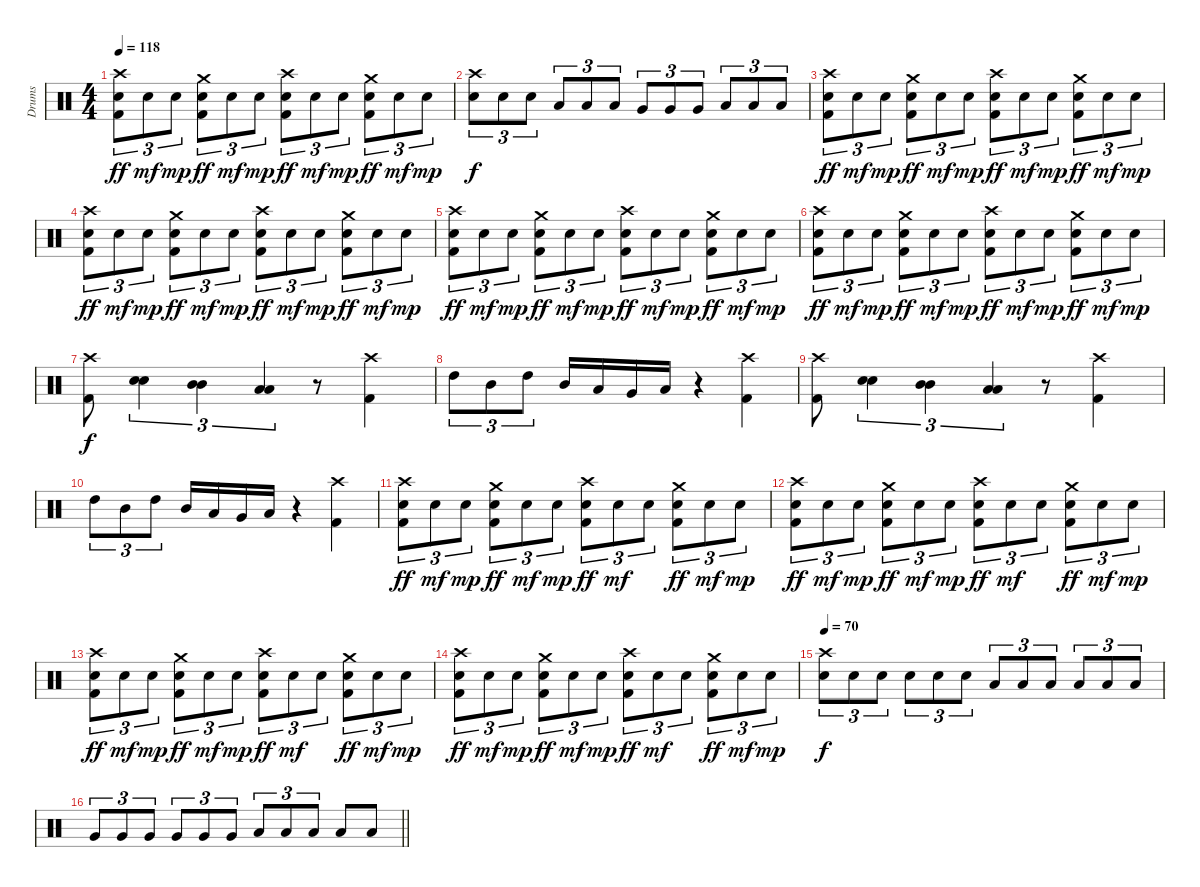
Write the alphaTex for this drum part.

\track ("Drums" "Drums") {instrument percussion}
\staff {score}
\articulation defaults
\ts (4 4)
\tempo 118
\clef neutral
\ks c
("Crash high (hit)" "Snare (hit) 2" "Kick (hit) 2").8{tu (3 2) dy ff} "Snare (hit) 2".8{tu (3 2) dy mf} "Snare (hit) 2".8{tu (3 2) dy mp} ("Crash medium (hit)" "Snare (hit) 2" "Kick (hit) 2").8{tu (3 2) dy ff} "Snare (hit) 2".8{tu (3 2) dy mf} "Snare (hit) 2".8{tu (3 2) dy mp} ("Crash high (hit)" "Snare (hit) 2" "Kick (hit) 2").8{tu (3 2) dy ff} "Snare (hit) 2".8{tu (3 2) dy mf} "Snare (hit) 2".8{tu (3 2) dy mp} ("Crash medium (hit)" "Snare (hit) 2" "Kick (hit) 2").8{tu (3 2) dy ff} "Snare (hit) 2".8{tu (3 2) dy mf} "Snare (hit) 2".8{tu (3 2) dy mp} |
("Crash high (hit)" "Snare (hit) 2").8{tu (3 2) dy f} "Snare (hit) 2".8{tu (3 2)} "Snare (hit) 2".8{tu (3 2)} "Low Tom (hit)".8{tu (3 2)} "Low Tom (hit)".8{tu (3 2)} "Low Tom (hit)".8{tu (3 2)} "Very Low Tom (hit)".8{tu (3 2)} "Very Low Tom (hit)".8{tu (3 2)} "Very Low Tom (hit)".8{tu (3 2)} "Low Floor Tom (hit)".8{tu (3 2)} "Low Floor Tom (hit)".8{tu (3 2)} "Low Floor Tom (hit)".8{tu (3 2)} |
("Crash high (hit)" "Snare (hit) 2" "Kick (hit) 2").8{tu (3 2) dy ff} "Snare (hit) 2".8{tu (3 2) dy mf} "Snare (hit) 2".8{tu (3 2) dy mp} ("Crash medium (hit)" "Snare (hit) 2" "Kick (hit) 2").8{tu (3 2) dy ff} "Snare (hit) 2".8{tu (3 2) dy mf} "Snare (hit) 2".8{tu (3 2) dy mp} ("Crash high (hit)" "Snare (hit) 2" "Kick (hit) 2").8{tu (3 2) dy ff} "Snare (hit) 2".8{tu (3 2) dy mf} "Snare (hit) 2".8{tu (3 2) dy mp} ("Crash medium (hit)" "Snare (hit) 2" "Kick (hit) 2").8{tu (3 2) dy ff} "Snare (hit) 2".8{tu (3 2) dy mf} "Snare (hit) 2".8{tu (3 2) dy mp} |
("Crash high (hit)" "Snare (hit) 2" "Kick (hit) 2").8{tu (3 2) dy ff} "Snare (hit) 2".8{tu (3 2) dy mf} "Snare (hit) 2".8{tu (3 2) dy mp} ("Crash medium (hit)" "Snare (hit) 2" "Kick (hit) 2").8{tu (3 2) dy ff} "Snare (hit) 2".8{tu (3 2) dy mf} "Snare (hit) 2".8{tu (3 2) dy mp} ("Crash high (hit)" "Snare (hit) 2" "Kick (hit) 2").8{tu (3 2) dy ff} "Snare (hit) 2".8{tu (3 2) dy mf} "Snare (hit) 2".8{tu (3 2) dy mp} ("Crash medium (hit)" "Snare (hit) 2" "Kick (hit) 2").8{tu (3 2) dy ff} "Snare (hit) 2".8{tu (3 2) dy mf} "Snare (hit) 2".8{tu (3 2) dy mp} |
("Crash high (hit)" "Snare (hit) 2" "Kick (hit) 2").8{tu (3 2) dy ff} "Snare (hit) 2".8{tu (3 2) dy mf} "Snare (hit) 2".8{tu (3 2) dy mp} ("Crash medium (hit)" "Snare (hit) 2" "Kick (hit) 2").8{tu (3 2) dy ff} "Snare (hit) 2".8{tu (3 2) dy mf} "Snare (hit) 2".8{tu (3 2) dy mp} ("Crash high (hit)" "Snare (hit) 2" "Kick (hit) 2").8{tu (3 2) dy ff} "Snare (hit) 2".8{tu (3 2) dy mf} "Snare (hit) 2".8{tu (3 2) dy mp} ("Crash medium (hit)" "Snare (hit) 2" "Kick (hit) 2").8{tu (3 2) dy ff} "Snare (hit) 2".8{tu (3 2) dy mf} "Snare (hit) 2".8{tu (3 2) dy mp} |
("Crash high (hit)" "Snare (hit) 2" "Kick (hit) 2").8{tu (3 2) dy ff} "Snare (hit) 2".8{tu (3 2) dy mf} "Snare (hit) 2".8{tu (3 2) dy mp} ("Crash medium (hit)" "Snare (hit) 2" "Kick (hit) 2").8{tu (3 2) dy ff} "Snare (hit) 2".8{tu (3 2) dy mf} "Snare (hit) 2".8{tu (3 2) dy mp} ("Crash high (hit)" "Snare (hit) 2" "Kick (hit) 2").8{tu (3 2) dy ff} "Snare (hit) 2".8{tu (3 2) dy mf} "Snare (hit) 2".8{tu (3 2) dy mp} ("Crash medium (hit)" "Snare (hit) 2" "Kick (hit) 2").8{tu (3 2) dy ff} "Snare (hit) 2".8{tu (3 2) dy mf} "Snare (hit) 2".8{tu (3 2) dy mp} |
("Crash high (hit)" "Kick (hit) 2").8{dy f} ("Snare (hit) 2" "Snare (hit) 2").4{tu (3 2)} ("Mid Tom (hit)" "Mid Tom (hit)").4{tu (3 2)} ("Low Tom (hit)" "Low Tom (hit)").4{tu (3 2)} r.8 ("Crash high (hit)" "Kick (hit) 2").4 |
"High Tom (hit)".8{tu (3 2)} "Mid Tom (hit)".8{tu (3 2)} "High Tom (hit)".8{tu (3 2)} "Mid Tom (hit)".16 "Low Tom (hit)".16 "Very Low Tom (hit)".16 "Low Floor Tom (hit)".16 r.4 ("Crash high (hit)" "Kick (hit) 2").4 |
("Crash high (hit)" "Kick (hit) 2").8 ("Snare (hit) 2" "Snare (hit) 2").4{tu (3 2)} ("Mid Tom (hit)" "Mid Tom (hit)").4{tu (3 2)} ("Low Tom (hit)" "Low Tom (hit)").4{tu (3 2)} r.8 ("Crash high (hit)" "Kick (hit) 2").4 |
"High Tom (hit)".8{tu (3 2)} "Mid Tom (hit)".8{tu (3 2)} "High Tom (hit)".8{tu (3 2)} "Mid Tom (hit)".16 "Low Tom (hit)".16 "Very Low Tom (hit)".16 "Low Floor Tom (hit)".16 r.4 ("Crash high (hit)" "Kick (hit) 2").4 |
("Crash high (hit)" "Snare (hit) 2" "Kick (hit) 2").8{tu (3 2) dy ff} "Snare (hit) 2".8{tu (3 2) dy mf} "Snare (hit) 2".8{tu (3 2) dy mp} ("Crash medium (hit)" "Snare (hit) 2" "Kick (hit) 2").8{tu (3 2) dy ff} "Snare (hit) 2".8{tu (3 2) dy mf} "Snare (hit) 2".8{tu (3 2) dy mp} ("Crash high (hit)" "Snare (hit) 2" "Kick (hit) 2").8{tu (3 2) dy ff} "Snare (hit) 2".8{tu (3 2) dy mf} "Snare (hit) 2".8{tu (3 2)} ("Crash medium (hit)" "Snare (hit) 2" "Kick (hit) 2").8{tu (3 2) dy ff} "Snare (hit) 2".8{tu (3 2) dy mf} "Snare (hit) 2".8{tu (3 2) dy mp} |
("Crash high (hit)" "Snare (hit) 2" "Kick (hit) 2").8{tu (3 2) dy ff} "Snare (hit) 2".8{tu (3 2) dy mf} "Snare (hit) 2".8{tu (3 2) dy mp} ("Crash medium (hit)" "Snare (hit) 2" "Kick (hit) 2").8{tu (3 2) dy ff} "Snare (hit) 2".8{tu (3 2) dy mf} "Snare (hit) 2".8{tu (3 2) dy mp} ("Crash high (hit)" "Snare (hit) 2" "Kick (hit) 2").8{tu (3 2) dy ff} "Snare (hit) 2".8{tu (3 2) dy mf} "Snare (hit) 2".8{tu (3 2)} ("Crash medium (hit)" "Snare (hit) 2" "Kick (hit) 2").8{tu (3 2) dy ff} "Snare (hit) 2".8{tu (3 2) dy mf} "Snare (hit) 2".8{tu (3 2) dy mp} |
("Crash high (hit)" "Snare (hit) 2" "Kick (hit) 2").8{tu (3 2) dy ff} "Snare (hit) 2".8{tu (3 2) dy mf} "Snare (hit) 2".8{tu (3 2) dy mp} ("Crash medium (hit)" "Snare (hit) 2" "Kick (hit) 2").8{tu (3 2) dy ff} "Snare (hit) 2".8{tu (3 2) dy mf} "Snare (hit) 2".8{tu (3 2) dy mp} ("Crash high (hit)" "Snare (hit) 2" "Kick (hit) 2").8{tu (3 2) dy ff} "Snare (hit) 2".8{tu (3 2) dy mf} "Snare (hit) 2".8{tu (3 2)} ("Crash medium (hit)" "Snare (hit) 2" "Kick (hit) 2").8{tu (3 2) dy ff} "Snare (hit) 2".8{tu (3 2) dy mf} "Snare (hit) 2".8{tu (3 2) dy mp} |
("Crash high (hit)" "Snare (hit) 2" "Kick (hit) 2").8{tu (3 2) dy ff} "Snare (hit) 2".8{tu (3 2) dy mf} "Snare (hit) 2".8{tu (3 2) dy mp} ("Crash medium (hit)" "Snare (hit) 2" "Kick (hit) 2").8{tu (3 2) dy ff} "Snare (hit) 2".8{tu (3 2) dy mf} "Snare (hit) 2".8{tu (3 2) dy mp} ("Crash high (hit)" "Snare (hit) 2" "Kick (hit) 2").8{tu (3 2) dy ff} "Snare (hit) 2".8{tu (3 2) dy mf} "Snare (hit) 2".8{tu (3 2)} ("Crash medium (hit)" "Snare (hit) 2" "Kick (hit) 2").8{tu (3 2) dy ff} "Snare (hit) 2".8{tu (3 2) dy mf} "Snare (hit) 2".8{tu (3 2) dy mp} |
\tempo 70
("Crash high (hit)" "Snare (hit) 2").8{tu (3 2) dy f} "Snare (hit) 2".8{tu (3 2)} "Snare (hit) 2".8{tu (3 2)} "Snare (hit) 2".8{tu (3 2)} "Snare (hit) 2".8{tu (3 2)} "Snare (hit) 2".8{tu (3 2)} "Low Tom (hit)".8{tu (3 2)} "Low Tom (hit)".8{tu (3 2)} "Low Tom (hit)".8{tu (3 2)} "Low Tom (hit)".8{tu (3 2)} "Low Tom (hit)".8{tu (3 2)} "Low Tom (hit)".8{tu (3 2)} |
\barLineRight lightlight "Very Low Tom (hit)".8{tu (3 2)} "Very Low Tom (hit)".8{tu (3 2)} "Very Low Tom (hit)".8{tu (3 2)} "Very Low Tom (hit)".8{tu (3 2)} "Very Low Tom (hit)".8{tu (3 2)} "Very Low Tom (hit)".8{tu (3 2)} "Low Floor Tom (hit)".8{tu (3 2)} "Low Floor Tom (hit)".8{tu (3 2)} "Low Floor Tom (hit)".8{tu (3 2)} "Low Floor Tom (hit)".8 "Low Floor Tom (hit)".8
